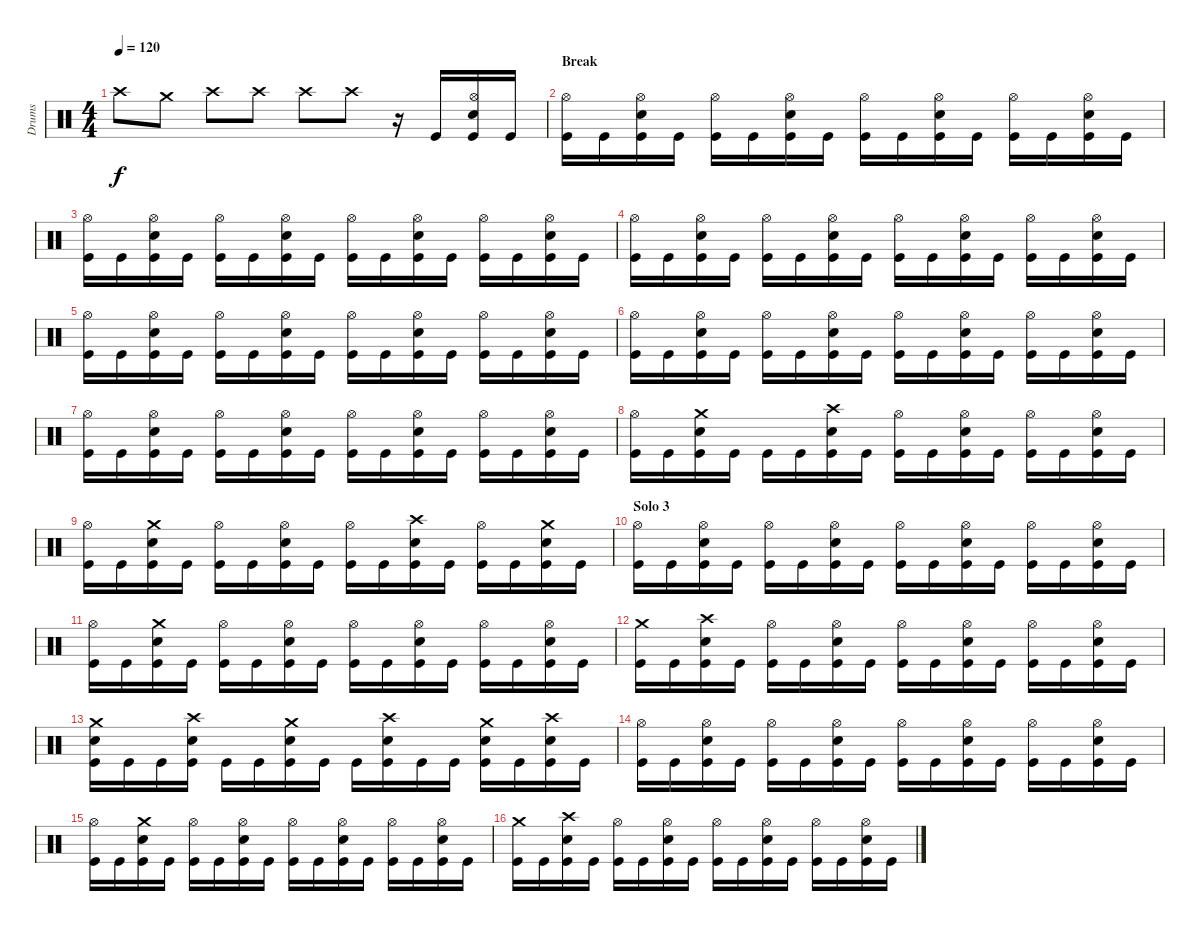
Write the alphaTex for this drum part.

\track ("Drums" "Drums") {instrument percussion}
\staff {score}
\articulation defaults
\ts (4 4)
\tempo 120
\clef neutral
\ks c "Crash high (hit)".8{dy f} "Crash medium (hit)".8 "Crash high (hit)".8 "Crash high (hit)".8 "Crash high (hit)".8 "Crash high (hit)".8
r.16 "Kick (hit)".16 ("Hi-Hat (open)" "Snare (hit) 2" "Kick (hit)").16 "Kick (hit)".16 |
\section ("" "Break")
("Hi-Hat (open)" "Kick (hit)").16 "Kick (hit)".16 ("Hi-Hat (open)" "Snare (hit) 2" "Kick (hit)").16 "Kick (hit)".16 ("Hi-Hat (open)" "Kick (hit)").16 "Kick (hit)".16 ("Hi-Hat (open)" "Snare (hit) 2" "Kick (hit)").16 "Kick (hit)".16 ("Hi-Hat (open)" "Kick (hit)").16 "Kick (hit)".16 ("Hi-Hat (open)" "Snare (hit) 2" "Kick (hit)").16 "Kick (hit)".16 ("Hi-Hat (open)" "Kick (hit)").16 "Kick (hit)".16 ("Hi-Hat (open)" "Snare (hit) 2" "Kick (hit)").16 "Kick (hit)".16 |
("Hi-Hat (open)" "Kick (hit)").16 "Kick (hit)".16 ("Hi-Hat (open)" "Snare (hit) 2" "Kick (hit)").16 "Kick (hit)".16 ("Hi-Hat (open)" "Kick (hit)").16 "Kick (hit)".16 ("Hi-Hat (open)" "Snare (hit) 2" "Kick (hit)").16 "Kick (hit)".16 ("Hi-Hat (open)" "Kick (hit)").16 "Kick (hit)".16 ("Hi-Hat (open)" "Snare (hit) 2" "Kick (hit)").16 "Kick (hit)".16 ("Hi-Hat (open)" "Kick (hit)").16 "Kick (hit)".16 ("Hi-Hat (open)" "Snare (hit) 2" "Kick (hit)").16 "Kick (hit)".16 |
("Hi-Hat (open)" "Kick (hit)").16 "Kick (hit)".16 ("Hi-Hat (open)" "Snare (hit) 2" "Kick (hit)").16 "Kick (hit)".16 ("Hi-Hat (open)" "Kick (hit)").16 "Kick (hit)".16 ("Hi-Hat (open)" "Snare (hit) 2" "Kick (hit)").16 "Kick (hit)".16 ("Hi-Hat (open)" "Kick (hit)").16 "Kick (hit)".16 ("Hi-Hat (open)" "Snare (hit) 2" "Kick (hit)").16 "Kick (hit)".16 ("Hi-Hat (open)" "Kick (hit)").16 "Kick (hit)".16 ("Hi-Hat (open)" "Snare (hit) 2" "Kick (hit)").16 "Kick (hit)".16 |
("Hi-Hat (open)" "Kick (hit)").16 "Kick (hit)".16 ("Hi-Hat (open)" "Snare (hit) 2" "Kick (hit)").16 "Kick (hit)".16 ("Hi-Hat (open)" "Kick (hit)").16 "Kick (hit)".16 ("Hi-Hat (open)" "Snare (hit) 2" "Kick (hit)").16 "Kick (hit)".16 ("Hi-Hat (open)" "Kick (hit)").16 "Kick (hit)".16 ("Hi-Hat (open)" "Snare (hit) 2" "Kick (hit)").16 "Kick (hit)".16 ("Hi-Hat (open)" "Kick (hit)").16 "Kick (hit)".16 ("Hi-Hat (open)" "Snare (hit) 2" "Kick (hit)").16 "Kick (hit)".16 |
("Hi-Hat (open)" "Kick (hit)").16 "Kick (hit)".16 ("Hi-Hat (open)" "Snare (hit) 2" "Kick (hit)").16 "Kick (hit)".16 ("Hi-Hat (open)" "Kick (hit)").16 "Kick (hit)".16 ("Hi-Hat (open)" "Snare (hit) 2" "Kick (hit)").16 "Kick (hit)".16 ("Hi-Hat (open)" "Kick (hit)").16 "Kick (hit)".16 ("Hi-Hat (open)" "Snare (hit) 2" "Kick (hit)").16 "Kick (hit)".16 ("Hi-Hat (open)" "Kick (hit)").16 "Kick (hit)".16 ("Hi-Hat (open)" "Snare (hit) 2" "Kick (hit)").16 "Kick (hit)".16 |
("Hi-Hat (open)" "Kick (hit)").16 "Kick (hit)".16 ("Hi-Hat (open)" "Snare (hit) 2" "Kick (hit)").16 "Kick (hit)".16 ("Hi-Hat (open)" "Kick (hit)").16 "Kick (hit)".16 ("Hi-Hat (open)" "Snare (hit) 2" "Kick (hit)").16 "Kick (hit)".16 ("Hi-Hat (open)" "Kick (hit)").16 "Kick (hit)".16 ("Hi-Hat (open)" "Snare (hit) 2" "Kick (hit)").16 "Kick (hit)".16 ("Hi-Hat (open)" "Kick (hit)").16 "Kick (hit)".16 ("Hi-Hat (open)" "Snare (hit) 2" "Kick (hit)").16 "Kick (hit)".16 |
("Hi-Hat (open)" "Kick (hit)").16 "Kick (hit)".16 ("Crash medium (hit)" "Snare (hit) 2" "Kick (hit)").16 "Kick (hit)".16 "Kick (hit)".16 "Kick (hit)".16 ("Crash high (hit)" "Snare (hit) 2" "Kick (hit)").16 "Kick (hit)".16 ("Hi-Hat (open)" "Kick (hit)").16 "Kick (hit)".16 ("Hi-Hat (open)" "Snare (hit) 2" "Kick (hit)").16 "Kick (hit)".16 ("Hi-Hat (open)" "Kick (hit)").16 "Kick (hit)".16 ("Hi-Hat (open)" "Snare (hit) 2" "Kick (hit)").16 "Kick (hit)".16 |
("Hi-Hat (open)" "Kick (hit)").16 "Kick (hit)".16 ("Crash medium (hit)" "Snare (hit) 2" "Kick (hit)").16 "Kick (hit)".16 ("Hi-Hat (open)" "Kick (hit)").16 "Kick (hit)".16 ("Hi-Hat (open)" "Snare (hit) 2" "Kick (hit)").16 "Kick (hit)".16 ("Hi-Hat (open)" "Kick (hit)").16 "Kick (hit)".16 ("Crash high (hit)" "Snare (hit) 2" "Kick (hit)").16 "Kick (hit)".16 ("Hi-Hat (open)" "Kick (hit)").16 "Kick (hit)".16 ("Crash medium (hit)" "Snare (hit) 2" "Kick (hit)").16 "Kick (hit)".16 |
\section ("" "Solo 3")
("Hi-Hat (open)" "Kick (hit)").16 "Kick (hit)".16 ("Hi-Hat (open)" "Snare (hit) 2" "Kick (hit)").16 "Kick (hit)".16 ("Hi-Hat (open)" "Kick (hit)").16 "Kick (hit)".16 ("Hi-Hat (open)" "Snare (hit) 2" "Kick (hit)").16 "Kick (hit)".16 ("Hi-Hat (open)" "Kick (hit)").16 "Kick (hit)".16 ("Hi-Hat (open)" "Snare (hit) 2" "Kick (hit)").16 "Kick (hit)".16 ("Hi-Hat (open)" "Kick (hit)").16 "Kick (hit)".16 ("Hi-Hat (open)" "Snare (hit) 2" "Kick (hit)").16 "Kick (hit)".16 |
("Hi-Hat (open)" "Kick (hit)").16 "Kick (hit)".16 ("Crash medium (hit)" "Snare (hit) 2" "Kick (hit)").16 "Kick (hit)".16 ("Hi-Hat (open)" "Kick (hit)").16 "Kick (hit)".16 ("Hi-Hat (open)" "Snare (hit) 2" "Kick (hit)").16 "Kick (hit)".16 ("Hi-Hat (open)" "Kick (hit)").16 "Kick (hit)".16 ("Hi-Hat (open)" "Snare (hit) 2" "Kick (hit)").16 "Kick (hit)".16 ("Hi-Hat (open)" "Kick (hit)").16 "Kick (hit)".16 ("Hi-Hat (open)" "Snare (hit) 2" "Kick (hit)").16 "Kick (hit)".16 |
("Crash medium (hit)" "Kick (hit)").16 "Kick (hit)".16 ("Crash high (hit)" "Snare (hit) 2" "Kick (hit)").16 "Kick (hit)".16 ("Hi-Hat (open)" "Kick (hit)").16 "Kick (hit)".16 ("Hi-Hat (open)" "Snare (hit) 2" "Kick (hit)").16 "Kick (hit)".16 ("Hi-Hat (open)" "Kick (hit)").16 "Kick (hit)".16 ("Hi-Hat (open)" "Snare (hit) 2" "Kick (hit)").16 "Kick (hit)".16 ("Hi-Hat (open)" "Kick (hit)").16 "Kick (hit)".16 ("Hi-Hat (open)" "Snare (hit) 2" "Kick (hit)").16 "Kick (hit)".16 |
("Crash medium (hit)" "Snare (hit) 2" "Kick (hit)").16 "Kick (hit)".16 "Kick (hit)".16 ("Crash high (hit)" "Snare (hit) 2" "Kick (hit)").16 "Kick (hit)".16 "Kick (hit)".16 ("Crash medium (hit)" "Snare (hit) 2" "Kick (hit)").16 "Kick (hit)".16 "Kick (hit)".16 ("Crash high (hit)" "Snare (hit) 2" "Kick (hit)").16 "Kick (hit)".16 "Kick (hit)".16 ("Crash medium (hit)" "Snare (hit) 2" "Kick (hit)").16 "Kick (hit)".16 ("Crash high (hit)" "Snare (hit) 2" "Kick (hit)").16 "Kick (hit)".16 |
("Hi-Hat (open)" "Kick (hit)").16 "Kick (hit)".16 ("Hi-Hat (open)" "Snare (hit) 2" "Kick (hit)").16 "Kick (hit)".16 ("Hi-Hat (open)" "Kick (hit)").16 "Kick (hit)".16 ("Hi-Hat (open)" "Snare (hit) 2" "Kick (hit)").16 "Kick (hit)".16 ("Hi-Hat (open)" "Kick (hit)").16 "Kick (hit)".16 ("Hi-Hat (open)" "Snare (hit) 2" "Kick (hit)").16 "Kick (hit)".16 ("Hi-Hat (open)" "Kick (hit)").16 "Kick (hit)".16 ("Hi-Hat (open)" "Snare (hit) 2" "Kick (hit)").16 "Kick (hit)".16 |
("Hi-Hat (open)" "Kick (hit)").16 "Kick (hit)".16 ("Crash medium (hit)" "Snare (hit) 2" "Kick (hit)").16 "Kick (hit)".16 ("Hi-Hat (open)" "Kick (hit)").16 "Kick (hit)".16 ("Hi-Hat (open)" "Snare (hit) 2" "Kick (hit)").16 "Kick (hit)".16 ("Hi-Hat (open)" "Kick (hit)").16 "Kick (hit)".16 ("Hi-Hat (open)" "Snare (hit) 2" "Kick (hit)").16 "Kick (hit)".16 ("Hi-Hat (open)" "Kick (hit)").16 "Kick (hit)".16 ("Hi-Hat (open)" "Snare (hit) 2" "Kick (hit)").16 "Kick (hit)".16 |
("Crash medium (hit)" "Kick (hit)").16 "Kick (hit)".16 ("Crash high (hit)" "Snare (hit) 2" "Kick (hit)").16 "Kick (hit)".16 ("Hi-Hat (open)" "Kick (hit)").16 "Kick (hit)".16 ("Hi-Hat (open)" "Snare (hit) 2" "Kick (hit)").16 "Kick (hit)".16 ("Hi-Hat (open)" "Kick (hit)").16 "Kick (hit)".16 ("Hi-Hat (open)" "Snare (hit) 2" "Kick (hit)").16 "Kick (hit)".16 ("Hi-Hat (open)" "Kick (hit)").16 "Kick (hit)".16 ("Hi-Hat (open)" "Snare (hit) 2" "Kick (hit)").16 "Kick (hit)".16
